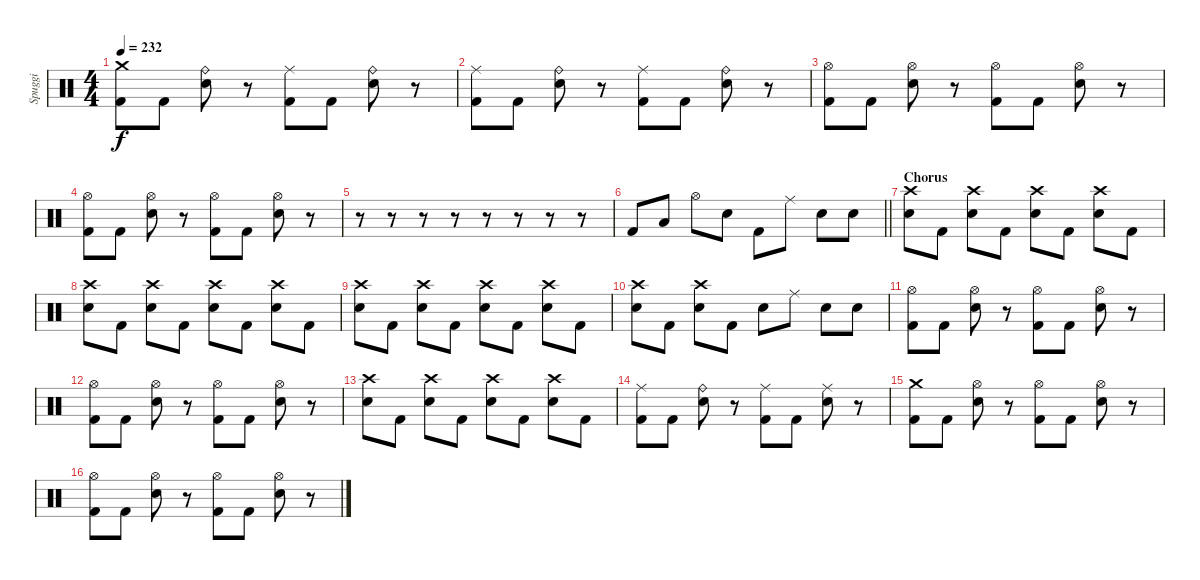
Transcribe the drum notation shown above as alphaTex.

\track ("Spuggi" "Spuggi") {instrument percussion}
\staff {score}
\articulation defaults
\ts (4 4)
\tempo 232
\clef neutral
\ks c
("Crash medium (hit)" "Kick (hit) 2").8{dy f} "Kick (hit) 2".8 ("Ride (bell)" "Snare (hit) 2").8 r.8 ("Ride (middle)" "Kick (hit) 2").8 "Kick (hit) 2".8 ("Ride (bell)" "Snare (hit) 2").8 r.8 |
("Ride (middle)" "Kick (hit) 2").8 "Kick (hit) 2".8 ("Ride (bell)" "Snare (hit) 2").8 r.8 ("Ride (middle)" "Kick (hit) 2").8 "Kick (hit) 2".8 ("Ride (bell)" "Snare (hit) 2").8 r.8 |
("Hi-Hat (open)" "Kick (hit) 2").8 "Kick (hit) 2".8 ("Hi-Hat (open)" "Snare (hit) 2").8 r.8 ("Hi-Hat (open)" "Kick (hit) 2").8 "Kick (hit) 2".8 ("Hi-Hat (open)" "Snare (hit) 2").8 r.8 |
("Hi-Hat (open)" "Kick (hit) 2").8 "Kick (hit) 2".8 ("Hi-Hat (open)" "Snare (hit) 2").8 r.8 ("Hi-Hat (open)" "Kick (hit) 2").8 "Kick (hit) 2".8 ("Hi-Hat (open)" "Snare (hit) 2").8 r.8 |
r.8 r.8 r.8 r.8 r.8 r.8 r.8 r.8 |
\barLineRight lightlight "Kick (hit) 2".8 "Low Tom (hit)".8 "Hi-Hat (open)".8 "Snare (hit) 2".8 "Kick (hit) 2".8 "Ride (middle)".8 "Snare (hit) 2".8 "Snare (hit) 2".8
|
\section ("" "Chorus")
("Crash high (hit)" "Snare (hit) 2").8 "Kick (hit) 2".8 ("Crash high (hit)" "Snare (hit) 2").8 "Kick (hit) 2".8 ("Crash high (hit)" "Snare (hit) 2").8 "Kick (hit) 2".8 ("Crash high (hit)" "Snare (hit) 2").8 "Kick (hit) 2".8 |
("Crash high (hit)" "Snare (hit) 2").8 "Kick (hit) 2".8 ("Crash high (hit)" "Snare (hit) 2").8 "Kick (hit) 2".8 ("Crash high (hit)" "Snare (hit) 2").8 "Kick (hit) 2".8 ("Crash high (hit)" "Snare (hit) 2").8 "Kick (hit) 2".8 |
("Crash high (hit)" "Snare (hit) 2").8 "Kick (hit) 2".8 ("Crash high (hit)" "Snare (hit) 2").8 "Kick (hit) 2".8 ("Crash high (hit)" "Snare (hit) 2").8 "Kick (hit) 2".8 ("Crash high (hit)" "Snare (hit) 2").8 "Kick (hit) 2".8 |
("Crash high (hit)" "Snare (hit) 2").8 "Kick (hit) 2".8 ("Crash high (hit)" "Snare (hit) 2").8 "Kick (hit) 2".8 "Snare (hit) 2".8 "Ride (middle)".8 "Snare (hit) 2".8 "Snare (hit) 2".8 |
("Hi-Hat (open)" "Kick (hit) 2").8 "Kick (hit) 2".8 ("Hi-Hat (open)" "Snare (hit) 2").8 r.8 ("Hi-Hat (open)" "Kick (hit) 2").8 "Kick (hit) 2".8 ("Hi-Hat (open)" "Snare (hit) 2").8 r.8 |
("Hi-Hat (open)" "Kick (hit) 2").8 "Kick (hit) 2".8 ("Hi-Hat (open)" "Snare (hit) 2").8 r.8 ("Hi-Hat (open)" "Kick (hit) 2").8 "Kick (hit) 2".8 ("Hi-Hat (open)" "Snare (hit) 2").8 r.8 |
("Crash high (hit)" "Snare (hit) 2").8 "Kick (hit) 2".8 ("Crash high (hit)" "Snare (hit) 2").8 "Kick (hit) 2".8 ("Crash high (hit)" "Snare (hit) 2").8 "Kick (hit) 2".8 ("Crash high (hit)" "Snare (hit) 2").8 "Kick (hit) 2".8 |
("Ride (middle)" "Kick (hit) 2").8 "Kick (hit) 2".8 ("Ride (bell)" "Snare (hit) 2").8 r.8 ("Ride (middle)" "Kick (hit) 2").8 "Kick (hit) 2".8 ("Ride (middle)" "Snare (hit) 2").8 r.8 |
("Crash medium (hit)" "Kick (hit) 2").8 "Kick (hit) 2".8 ("Hi-Hat (open)" "Snare (hit) 2").8 r.8 ("Hi-Hat (open)" "Kick (hit) 2").8 "Kick (hit) 2".8 ("Hi-Hat (open)" "Snare (hit) 2").8 r.8 |
("Hi-Hat (open)" "Kick (hit) 2").8 "Kick (hit) 2".8 ("Hi-Hat (open)" "Snare (hit) 2").8 r.8 ("Hi-Hat (open)" "Kick (hit) 2").8 "Kick (hit) 2".8 ("Hi-Hat (open)" "Snare (hit) 2").8 r.8
